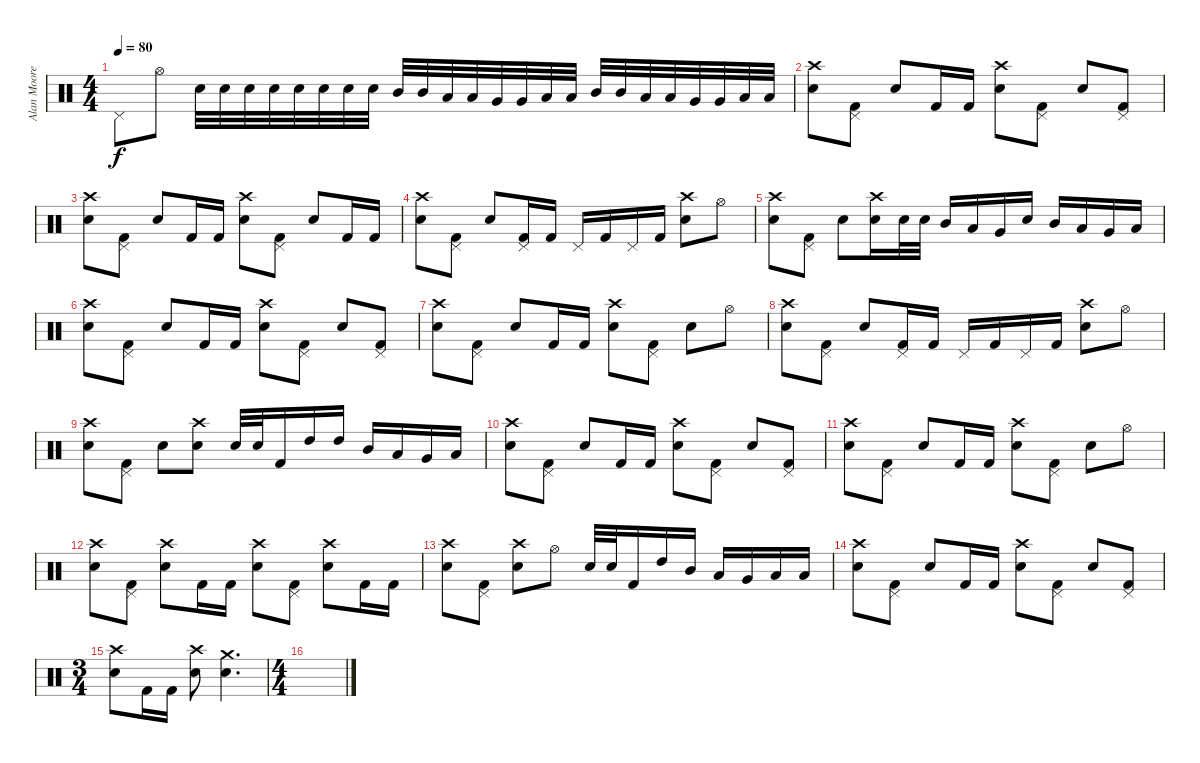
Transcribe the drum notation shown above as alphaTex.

\track ("Alan Moore" "Alan Moore") {instrument percussion}
\staff {score}
\articulation defaults
\ts (4 4)
\tempo 80
\clef neutral
\ks c "Pedal Hi-Hat (hit)".8{dy f} "Hi-Hat (open)".8 "Snare (hit) 2".32 "Snare (hit) 2".32 "Snare (hit) 2".32 "Snare (hit) 2".32 "Snare (hit) 2".32 "Snare (hit) 2".32 "Snare (hit) 2".32 "Snare (hit) 2".32 "Mid Tom (hit)".32 "Mid Tom (hit)".32 "Low Tom (hit)".32 "Low Tom (hit)".32 "Very Low Tom (hit)".32 "Very Low Tom (hit)".32 "Low Floor Tom (hit)".32 "Low Floor Tom (hit)".32 "Mid Tom (hit)".32 "Mid Tom (hit)".32 "Low Tom (hit)".32 "Low Tom (hit)".32 "Very Low Tom (hit)".32 "Very Low Tom (hit)".32 "Low Floor Tom (hit)".32 "Low Floor Tom (hit)".32
|
("Snare (hit) 2" "Crash high (hit)").8 ("Pedal Hi-Hat (hit)" "Kick (hit) 2").8 "Snare (hit) 2".8 "Kick (hit) 2".16 "Kick (hit) 2".16 ("Snare (hit) 2" "Crash high (hit)").8 ("Pedal Hi-Hat (hit)" "Kick (hit) 2").8 "Snare (hit) 2".8 ("Pedal Hi-Hat (hit)" "Kick (hit) 2").8 |
("Snare (hit) 2" "Crash high (hit)").8 ("Pedal Hi-Hat (hit)" "Kick (hit) 2").8 "Snare (hit) 2".8 "Kick (hit) 2".16 "Kick (hit) 2".16 ("Snare (hit) 2" "Crash high (hit)").8 ("Pedal Hi-Hat (hit)" "Kick (hit) 2").8 "Snare (hit) 2".8 "Kick (hit) 2".16 "Kick (hit) 2".16 |
("Snare (hit) 2" "Crash high (hit)").8 ("Pedal Hi-Hat (hit)" "Kick (hit) 2").8 "Snare (hit) 2".8 ("Pedal Hi-Hat (hit)" "Kick (hit) 2").16 "Kick (hit) 2".16 "Pedal Hi-Hat (hit)".16 "Kick (hit) 2".16 "Pedal Hi-Hat (hit)".16 "Kick (hit) 2".16 ("Snare (hit) 2" "Crash high (hit)").8 "Hi-Hat (open)".8 |
("Snare (hit) 2" "Crash high (hit)").8 ("Kick (hit) 2" "Pedal Hi-Hat (hit)").8 "Snare (hit) 2".8 ("Snare (hit) 2" "Crash high (hit)").16 "Snare (hit) 2".32 "Snare (hit) 2".32 "Mid Tom (hit)".16 "Low Tom (hit)".16 "Very Low Tom (hit)".16 "Snare (hit) 2".16 "Mid Tom (hit)".16 "Low Tom (hit)".16 "Very Low Tom (hit)".16 "Low Floor Tom (hit)".16 |
("Snare (hit) 2" "Crash high (hit)").8 ("Pedal Hi-Hat (hit)" "Kick (hit) 2").8 "Snare (hit) 2".8 "Kick (hit) 2".16 "Kick (hit) 2".16 ("Snare (hit) 2" "Crash high (hit)").8 ("Pedal Hi-Hat (hit)" "Kick (hit) 2").8 "Snare (hit) 2".8 ("Pedal Hi-Hat (hit)" "Kick (hit) 2").8 |
("Snare (hit) 2" "Crash high (hit)").8 ("Pedal Hi-Hat (hit)" "Kick (hit) 2").8 "Snare (hit) 2".8 "Kick (hit) 2".16 "Kick (hit) 2".16 ("Snare (hit) 2" "Crash high (hit)").8 ("Pedal Hi-Hat (hit)" "Kick (hit) 2").8 "Snare (hit) 2".8 "Hi-Hat (open)".8 |
("Snare (hit) 2" "Crash high (hit)").8 ("Pedal Hi-Hat (hit)" "Kick (hit) 2").8 "Snare (hit) 2".8 ("Pedal Hi-Hat (hit)" "Kick (hit) 2").16 "Kick (hit) 2".16 "Pedal Hi-Hat (hit)".16 "Kick (hit) 2".16 "Pedal Hi-Hat (hit)".16 "Kick (hit) 2".16 ("Snare (hit) 2" "Crash high (hit)").8 "Hi-Hat (open)".8 |
("Snare (hit) 2" "Crash high (hit)").8 ("Kick (hit) 2" "Pedal Hi-Hat (hit)").8 "Snare (hit) 2".8 ("Snare (hit) 2" "Crash high (hit)").8 "Snare (hit) 2".32 "Snare (hit) 2".32 "Kick (hit) 2".16 "High Tom (hit)".16 "High Tom (hit)".16 "Mid Tom (hit)".16 "Low Tom (hit)".16 "Very Low Tom (hit)".16 "Low Floor Tom (hit)".16 |
("Snare (hit) 2" "Crash high (hit)").8 ("Pedal Hi-Hat (hit)" "Kick (hit) 2").8 "Snare (hit) 2".8 "Kick (hit) 2".16 "Kick (hit) 2".16 ("Snare (hit) 2" "Crash high (hit)").8 ("Pedal Hi-Hat (hit)" "Kick (hit) 2").8 "Snare (hit) 2".8 ("Pedal Hi-Hat (hit)" "Kick (hit) 2").8 |
("Snare (hit) 2" "Crash high (hit)").8 ("Pedal Hi-Hat (hit)" "Kick (hit) 2").8 "Snare (hit) 2".8 "Kick (hit) 2".16 "Kick (hit) 2".16 ("Snare (hit) 2" "Crash high (hit)").8 ("Pedal Hi-Hat (hit)" "Kick (hit) 2").8 "Snare (hit) 2".8 "Hi-Hat (open)".8 |
("Snare (hit) 2" "Crash high (hit)").8 ("Pedal Hi-Hat (hit)" "Kick (hit) 2").8 ("Snare (hit) 2" "Crash high (hit)").8 "Kick (hit) 2".16 "Kick (hit) 2".16 ("Snare (hit) 2" "Crash high (hit)").8 ("Pedal Hi-Hat (hit)" "Kick (hit) 2").8 ("Snare (hit) 2" "Crash high (hit)").8 "Kick (hit) 2".16 "Kick (hit) 2".16 |
("Snare (hit) 2" "Crash high (hit)").8 ("Pedal Hi-Hat (hit)" "Kick (hit) 2").8 ("Snare (hit) 2" "Crash high (hit)").8 "Hi-Hat (open)".8 "Snare (hit) 2".32 "Snare (hit) 2".32 "Kick (hit) 2".16 "High Tom (hit)".16 "Mid Tom (hit)".16 "Low Tom (hit)".16 "Very Low Tom (hit)".16 "Low Floor Tom (hit)".16 "Low Floor Tom (hit)".16 |
("Snare (hit) 2" "Crash high (hit)").8 ("Pedal Hi-Hat (hit)" "Kick (hit) 2").8 "Snare (hit) 2".8 "Kick (hit) 2".16 "Kick (hit) 2".16 ("Snare (hit) 2" "Crash high (hit)").8 ("Pedal Hi-Hat (hit)" "Kick (hit) 2").8 "Snare (hit) 2".8 ("Pedal Hi-Hat (hit)" "Kick (hit) 2").8 |
\ts (3 4)
("Snare (hit) 2" "Crash high (hit)").8 "Kick (hit) 2".16 "Kick (hit) 2".16 ("Snare (hit) 2" "Crash high (hit)").8 ("Snare (hit) 2" "Crash medium (hit)").4{d} |
\ts (4 4)
